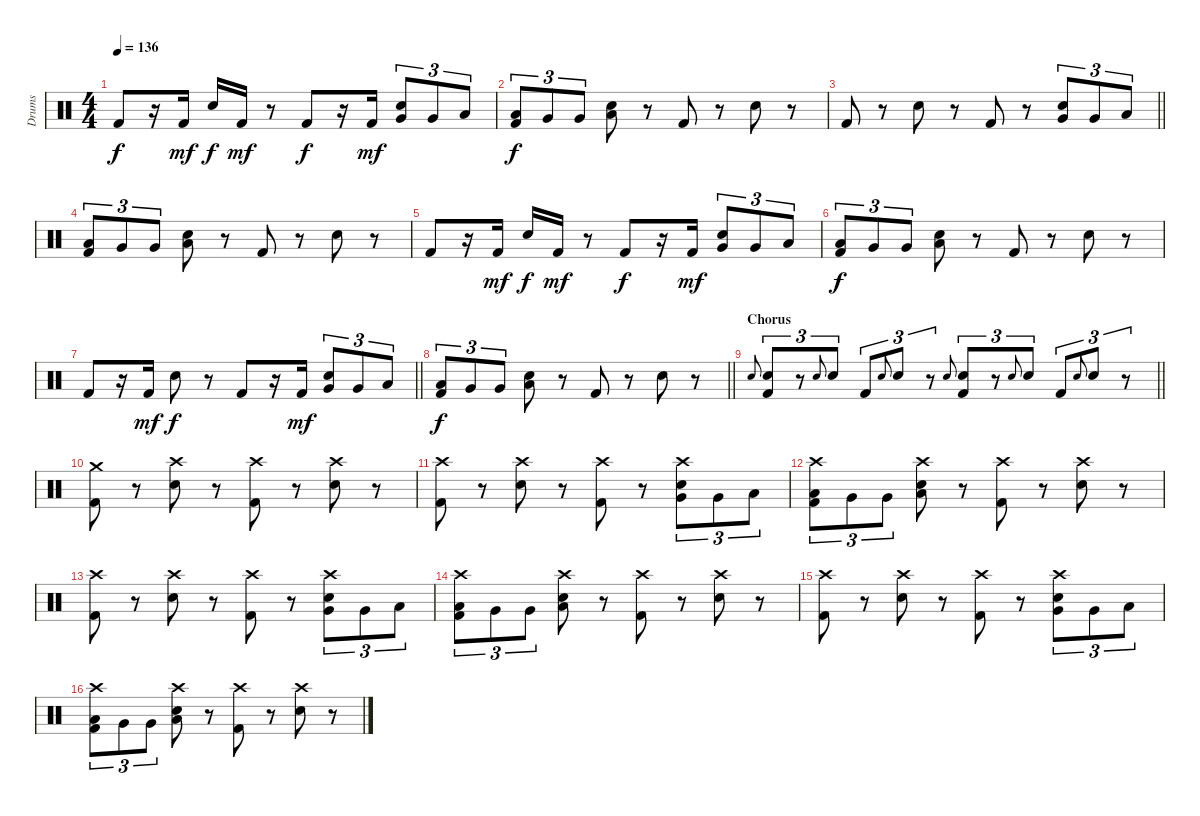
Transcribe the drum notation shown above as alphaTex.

\track ("Drums" "Drums") {instrument percussion}
\staff {score}
\articulation defaults
\ts (4 4)
\tempo 136
\clef neutral
\ks c "Kick (hit) 2".8{dy f}
r.16 "Kick (hit) 2".16{dy mf} "Electric Snare (hit)".16{dy f} "Kick (hit) 2".16{dy mf} r.8 "Kick (hit) 2".8{dy f} r.16 "Kick (hit) 2".16{dy mf} ("Electric Snare (hit)" "Very Low Tom (hit)").8{tu (3 2)} "Very Low Tom (hit)".8{tu (3 2)} "Low Floor Tom (hit)".8{tu (3 2)} |
("Low Floor Tom (hit)" "Kick (hit) 2").8{tu (3 2) dy f} "Very Low Tom (hit)".8{tu (3 2)} "Very Low Tom (hit)".8{tu (3 2)} ("Electric Snare (hit)" "Low Tom (hit)").8 r.8 "Kick (hit) 2".8 r.8 "Electric Snare (hit)".8 r.8 |
\barLineRight lightlight "Kick (hit) 2".8
r.8 "Electric Snare (hit)".8 r.8 "Kick (hit) 2".8 r.8 ("Electric Snare (hit)" "Very Low Tom (hit)").8{tu (3 2)} "Very Low Tom (hit)".8{tu (3 2)} "Low Floor Tom (hit)".8{tu (3 2)} |
("Low Floor Tom (hit)" "Kick (hit) 2").8{tu (3 2)} "Very Low Tom (hit)".8{tu (3 2)} "Very Low Tom (hit)".8{tu (3 2)} ("Electric Snare (hit)" "Low Tom (hit)").8 r.8 "Kick (hit) 2".8 r.8 "Electric Snare (hit)".8 r.8 |
"Kick (hit) 2".8 r.16 "Kick (hit) 2".16{dy mf} "Electric Snare (hit)".16{dy f} "Kick (hit) 2".16{dy mf} r.8 "Kick (hit) 2".8{dy f} r.16 "Kick (hit) 2".16{dy mf} ("Electric Snare (hit)" "Very Low Tom (hit)").8{tu (3 2)} "Very Low Tom (hit)".8{tu (3 2)} "Low Floor Tom (hit)".8{tu (3 2)} |
("Low Floor Tom (hit)" "Kick (hit) 2").8{tu (3 2) dy f} "Very Low Tom (hit)".8{tu (3 2)} "Very Low Tom (hit)".8{tu (3 2)} ("Electric Snare (hit)" "Low Tom (hit)").8 r.8 "Kick (hit) 2".8 r.8 "Electric Snare (hit)".8 r.8 |
\barLineRight lightlight "Kick (hit) 2".8
r.16 "Kick (hit) 2".16{dy mf} "Electric Snare (hit)".8{dy f} r.8 "Kick (hit) 2".8 r.16 "Kick (hit) 2".16{dy mf} ("Electric Snare (hit)" "Very Low Tom (hit)").8{tu (3 2)} "Very Low Tom (hit)".8{tu (3 2)} "Low Floor Tom (hit)".8{tu (3 2)} |
\barLineRight lightlight
("Low Floor Tom (hit)" "Kick (hit) 2").8{tu (3 2) dy f} "Very Low Tom (hit)".8{tu (3 2)} "Very Low Tom (hit)".8{tu (3 2)} ("Electric Snare (hit)" "Low Tom (hit)").8 r.8 "Kick (hit) 2".8 r.8 "Electric Snare (hit)".8 r.8 |
\section ("" "Chorus")
\barLineRight lightlight "Electric Snare (hit)".8{gr onbeat}
("Electric Snare (hit)" "Kick (hit) 2").8{tu (3 2)} r.8{tu (3 2)} "Electric Snare (hit)".8{gr onbeat} "Electric Snare (hit)".8{tu (3 2)} "Kick (hit) 2".8{tu (3 2)} "Electric Snare (hit)".8{gr onbeat} "Electric Snare (hit)".8{tu (3 2)} r.8{tu (3 2)} "Electric Snare (hit)".8{gr onbeat} ("Electric Snare (hit)" "Kick (hit) 2").8{tu (3 2)} r.8{tu (3 2)} "Electric Snare (hit)".8{gr onbeat} "Electric Snare (hit)".8{tu (3 2)} "Kick (hit) 2".8{tu (3 2)} "Electric Snare (hit)".8{gr onbeat} "Electric Snare (hit)".8{tu (3 2)} r.8{tu (3 2)} |
("Crash medium (hit)" "Kick (hit) 2").8 r.8 ("Crash high (hit)" "Electric Snare (hit)").8 r.8 ("Crash high (hit)" "Kick (hit) 2").8 r.8 ("Crash high (hit)" "Electric Snare (hit)").8 r.8 |
("Crash high (hit)" "Kick (hit) 2").8 r.8 ("Crash high (hit)" "Electric Snare (hit)").8 r.8 ("Crash high (hit)" "Kick (hit) 2").8 r.8 ("Crash high (hit)" "Electric Snare (hit)" "Very Low Tom (hit)").8{tu (3 2)} "Very Low Tom (hit)".8{tu (3 2)} "Low Floor Tom (hit)".8{tu (3 2)} |
("Crash high (hit)" "Low Floor Tom (hit)" "Kick (hit) 2").8{tu (3 2)} "Very Low Tom (hit)".8{tu (3 2)} "Very Low Tom (hit)".8{tu (3 2)} ("Crash high (hit)" "Electric Snare (hit)" "Low Tom (hit)").8 r.8 ("Crash high (hit)" "Kick (hit) 2").8 r.8 ("Crash high (hit)" "Electric Snare (hit)").8 r.8 |
("Crash high (hit)" "Kick (hit) 2").8 r.8 ("Crash high (hit)" "Electric Snare (hit)").8 r.8 ("Crash high (hit)" "Kick (hit) 2").8 r.8 ("Crash high (hit)" "Electric Snare (hit)" "Very Low Tom (hit)").8{tu (3 2)} "Very Low Tom (hit)".8{tu (3 2)} "Low Floor Tom (hit)".8{tu (3 2)} |
("Crash high (hit)" "Low Floor Tom (hit)" "Kick (hit) 2").8{tu (3 2)} "Very Low Tom (hit)".8{tu (3 2)} "Very Low Tom (hit)".8{tu (3 2)} ("Crash high (hit)" "Electric Snare (hit)" "Low Tom (hit)").8 r.8 ("Crash high (hit)" "Kick (hit) 2").8 r.8 ("Crash high (hit)" "Electric Snare (hit)").8 r.8 |
("Crash high (hit)" "Kick (hit) 2").8 r.8 ("Crash high (hit)" "Electric Snare (hit)").8 r.8 ("Crash high (hit)" "Kick (hit) 2").8 r.8 ("Crash high (hit)" "Electric Snare (hit)" "Very Low Tom (hit)").8{tu (3 2)} "Very Low Tom (hit)".8{tu (3 2)} "Low Floor Tom (hit)".8{tu (3 2)} |
("Crash high (hit)" "Low Floor Tom (hit)" "Kick (hit) 2").8{tu (3 2)} "Very Low Tom (hit)".8{tu (3 2)} "Very Low Tom (hit)".8{tu (3 2)} ("Crash high (hit)" "Electric Snare (hit)" "Low Tom (hit)").8 r.8 ("Crash high (hit)" "Kick (hit) 2").8 r.8 ("Crash high (hit)" "Electric Snare (hit)").8 r.8
